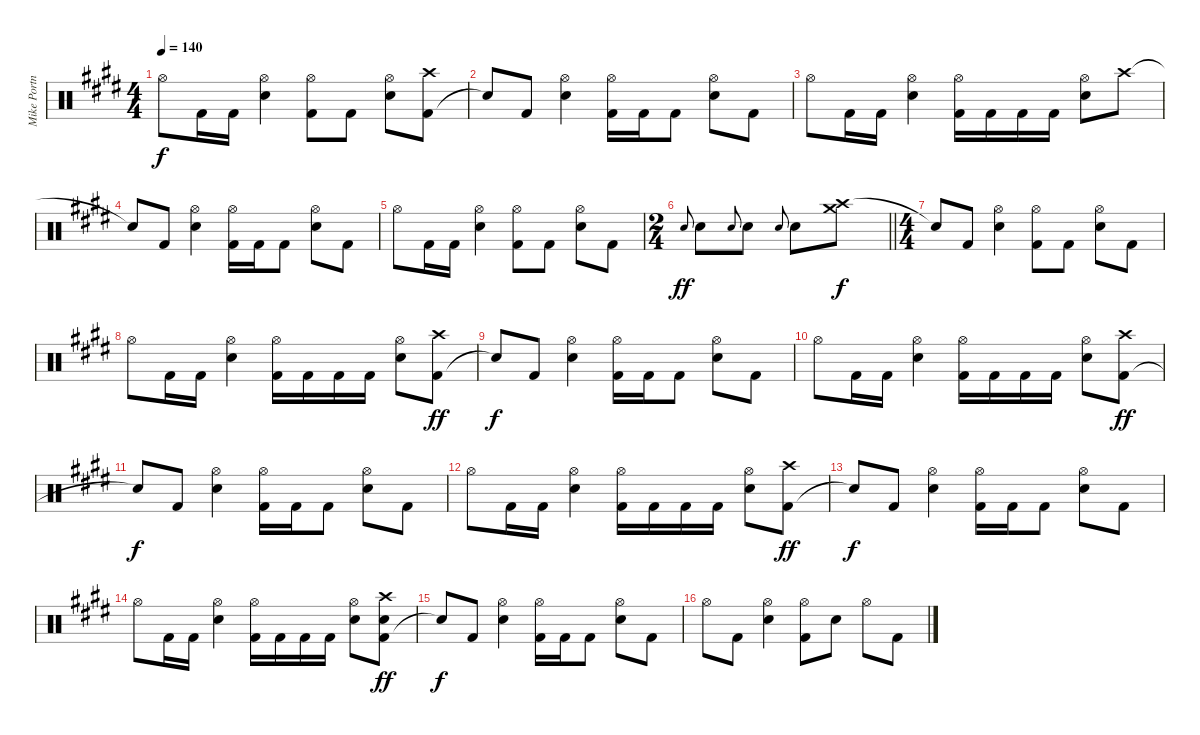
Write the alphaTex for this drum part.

\track ("Mike Portnoy - Drums" "Mike Portn") {instrument percussion}
\staff {score}
\articulation defaults
\ts (4 4)
\tempo 140
\clef neutral
\ks c#minor "Hi-Hat (open)".8{dy f} "Kick (hit) 2".16 "Kick (hit) 2".16
("Electric Snare (hit)" "Hi-Hat (open)").4 ("Kick (hit) 2" "Hi-Hat (open)").8 "Kick (hit) 2".8 ("Electric Snare (hit)" "Hi-Hat (open)").8 ("Kick (hit) 2" "Crash high (hit)").8 |
"Snare (hit)"{t}.8 "Kick (hit) 2".8 ("Electric Snare (hit)" "Hi-Hat (open)").4 ("Kick (hit) 2" "Hi-Hat (open)").16 "Kick (hit) 2".16 "Kick (hit) 2".8 ("Electric Snare (hit)" "Hi-Hat (open)").8 "Kick (hit) 2".8 |
"Hi-Hat (open)".8 "Kick (hit) 2".16 "Kick (hit) 2".16 ("Electric Snare (hit)" "Hi-Hat (open)").4 ("Kick (hit) 2" "Hi-Hat (open)").16 "Kick (hit) 2".16 "Kick (hit) 2".16 "Kick (hit) 2".16 ("Electric Snare (hit)" "Hi-Hat (open)").8 "Crash high (hit)".8 |
"Snare (hit)"{t}.8 "Kick (hit) 2".8 ("Electric Snare (hit)" "Hi-Hat (open)").4 ("Kick (hit) 2" "Hi-Hat (open)").16 "Kick (hit) 2".16 "Kick (hit) 2".8 ("Electric Snare (hit)" "Hi-Hat (open)").8 "Kick (hit) 2".8 |
\ks e "Hi-Hat (open)".8 "Kick (hit) 2".16 "Kick (hit) 2".16
("Electric Snare (hit)" "Hi-Hat (open)").4 ("Kick (hit) 2" "Hi-Hat (open)").8 "Kick (hit) 2".8 ("Electric Snare (hit)" "Hi-Hat (open)").8 "Kick (hit) 2".8 |
\ts (2 4)
\barLineRight lightlight
\ks c#minor "Electric Snare (hit)".8{gr onbeat dy ff} "Electric Snare (hit)".8 "Electric Snare (hit)".8{gr onbeat} "Electric Snare (hit)".8 "Electric Snare (hit)".8{gr onbeat} "Electric Snare (hit)".8
("Crash high (hit)" "Crash medium (hit)").8{dy f} |
\ts (4 4)
"Snare (hit)"{t}.8 "Kick (hit) 2".8 ("Electric Snare (hit)" "Hi-Hat (open)").4 ("Kick (hit) 2" "Hi-Hat (open)").8 "Kick (hit) 2".8 ("Electric Snare (hit)" "Hi-Hat (open)").8 "Kick (hit) 2".8 |
"Hi-Hat (open)".8 "Kick (hit) 2".16 "Kick (hit) 2".16 ("Electric Snare (hit)" "Hi-Hat (open)").4 ("Kick (hit) 2" "Hi-Hat (open)").16 "Kick (hit) 2".16 "Kick (hit) 2".16 "Kick (hit) 2".16 ("Electric Snare (hit)" "Hi-Hat (open)").8 ("Kick (hit) 2" "Crash high (hit)").8{dy ff} |
"Snare (hit)"{t}.8{dy f} "Kick (hit) 2".8 ("Electric Snare (hit)" "Hi-Hat (open)").4 ("Kick (hit) 2" "Hi-Hat (open)").16 "Kick (hit) 2".16 "Kick (hit) 2".8 ("Electric Snare (hit)" "Hi-Hat (open)").8 "Kick (hit) 2".8 |
"Hi-Hat (open)".8 "Kick (hit) 2".16 "Kick (hit) 2".16 ("Electric Snare (hit)" "Hi-Hat (open)").4 ("Kick (hit) 2" "Hi-Hat (open)").16 "Kick (hit) 2".16 "Kick (hit) 2".16 "Kick (hit) 2".16 ("Electric Snare (hit)" "Hi-Hat (open)").8 ("Kick (hit) 2" "Crash high (hit)").8{dy ff} |
"Snare (hit)"{t}.8{dy f} "Kick (hit) 2".8 ("Electric Snare (hit)" "Hi-Hat (open)").4 ("Kick (hit) 2" "Hi-Hat (open)").16 "Kick (hit) 2".16 "Kick (hit) 2".8 ("Electric Snare (hit)" "Hi-Hat (open)").8 "Kick (hit) 2".8 |
"Hi-Hat (open)".8 "Kick (hit) 2".16 "Kick (hit) 2".16 ("Electric Snare (hit)" "Hi-Hat (open)").4 ("Kick (hit) 2" "Hi-Hat (open)").16 "Kick (hit) 2".16 "Kick (hit) 2".16 "Kick (hit) 2".16 ("Electric Snare (hit)" "Hi-Hat (open)").8 ("Kick (hit) 2" "Crash high (hit)").8{dy ff} |
"Snare (hit)"{t}.8{dy f} "Kick (hit) 2".8 ("Electric Snare (hit)" "Hi-Hat (open)").4 ("Kick (hit) 2" "Hi-Hat (open)").16 "Kick (hit) 2".16 "Kick (hit) 2".8 ("Electric Snare (hit)" "Hi-Hat (open)").8 "Kick (hit) 2".8 |
"Hi-Hat (open)".8 "Kick (hit) 2".16 "Kick (hit) 2".16 ("Electric Snare (hit)" "Hi-Hat (open)").4 ("Kick (hit) 2" "Hi-Hat (open)").16 "Kick (hit) 2".16 "Kick (hit) 2".16 "Kick (hit) 2".16 ("Electric Snare (hit)" "Hi-Hat (open)").8 ("Kick (hit) 2" "Electric Snare (hit)" "Crash high (hit)").8{dy ff} |
"Snare (hit)"{t}.8{dy f} "Kick (hit) 2".8 ("Electric Snare (hit)" "Hi-Hat (open)").4 ("Kick (hit) 2" "Hi-Hat (open)").16 "Kick (hit) 2".16 "Kick (hit) 2".8 ("Electric Snare (hit)" "Hi-Hat (open)").8 "Kick (hit) 2".8 |
"Hi-Hat (open)".8 "Kick (hit) 2".8 ("Electric Snare (hit)" "Hi-Hat (open)").4 ("Kick (hit) 2" "Hi-Hat (open)").8 "Electric Snare (hit)".8 "Hi-Hat (open)".8 "Kick (hit) 2".8
